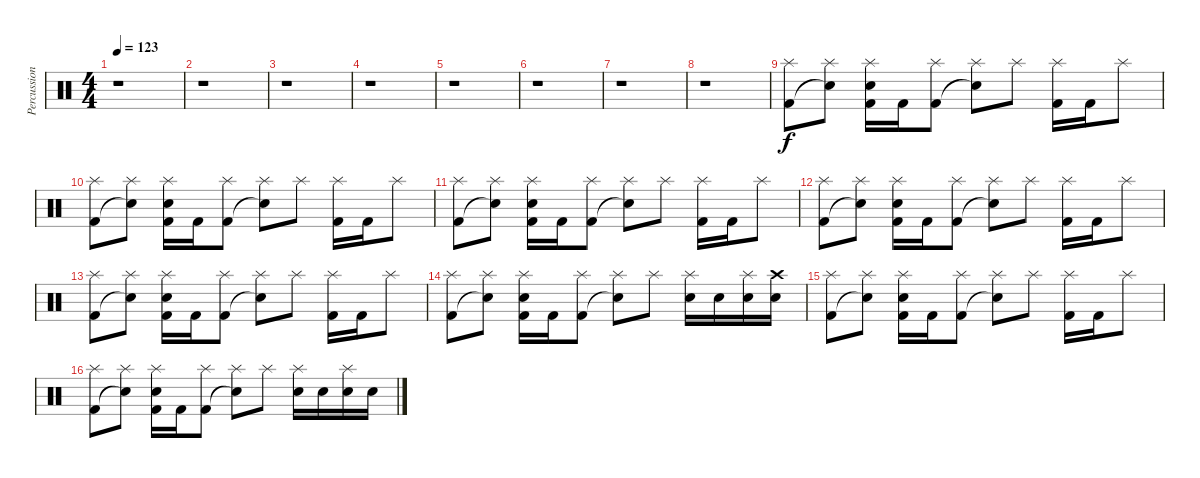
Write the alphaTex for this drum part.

\track ("Percussion" "Percussion") {instrument percussion}
\staff {score}
\articulation defaults
\ts (4 4)
\tempo 123
\clef neutral
\ks c
r.1{dy f} |
r.1 |
r.1 |
r.1 |
r.1 |
r.1 |
r.1 |
r.1 |
("Kick (hit) 2" "Splash (hit)").8 ("Snare (hit)"{t} "Splash (hit)").8 ("Electric Snare (hit)" "Kick (hit) 2" "Splash (hit)").16 "Kick (hit) 2".16 ("Kick (hit) 2" "Splash (hit)").8 ("Snare (hit)"{t} "Splash (hit)").8 "Splash (hit)".8 ("Kick (hit) 2" "Splash (hit)").16 "Kick (hit) 2".16 "Splash (hit)".8 |
("Kick (hit) 2" "Splash (hit)").8 ("Snare (hit)"{t} "Splash (hit)").8 ("Electric Snare (hit)" "Kick (hit) 2" "Splash (hit)").16 "Kick (hit) 2".16 ("Kick (hit) 2" "Splash (hit)").8 ("Snare (hit)"{t} "Splash (hit)").8 "Splash (hit)".8 ("Kick (hit) 2" "Splash (hit)").16 "Kick (hit) 2".16 "Splash (hit)".8 |
("Kick (hit) 2" "Splash (hit)").8 ("Snare (hit)"{t} "Splash (hit)").8 ("Electric Snare (hit)" "Kick (hit) 2" "Splash (hit)").16 "Kick (hit) 2".16 ("Kick (hit) 2" "Splash (hit)").8 ("Snare (hit)"{t} "Splash (hit)").8 "Splash (hit)".8 ("Kick (hit) 2" "Splash (hit)").16 "Kick (hit) 2".16 "Splash (hit)".8 |
("Kick (hit) 2" "Splash (hit)").8 ("Snare (hit)"{t} "Splash (hit)").8 ("Electric Snare (hit)" "Kick (hit) 2" "Splash (hit)").16 "Kick (hit) 2".16 ("Kick (hit) 2" "Splash (hit)").8 ("Snare (hit)"{t} "Splash (hit)").8 "Splash (hit)".8 ("Kick (hit) 2" "Splash (hit)").16 "Kick (hit) 2".16 "Splash (hit)".8 |
("Kick (hit) 2" "Splash (hit)").8 ("Snare (hit)"{t} "Splash (hit)").8 ("Electric Snare (hit)" "Kick (hit) 2" "Splash (hit)").16 "Kick (hit) 2".16 ("Kick (hit) 2" "Splash (hit)").8 ("Snare (hit)"{t} "Splash (hit)").8 "Splash (hit)".8 ("Kick (hit) 2" "Splash (hit)").16 "Kick (hit) 2".16 "Splash (hit)".8 |
("Kick (hit) 2" "Splash (hit)").8 ("Snare (hit)"{t} "Splash (hit)").8 ("Electric Snare (hit)" "Kick (hit) 2" "Splash (hit)").16 "Kick (hit) 2".16 ("Kick (hit) 2" "Splash (hit)").8 ("Snare (hit)"{t} "Splash (hit)").8 "Splash (hit)".8 ("Electric Snare (hit)" "Splash (hit)").16 "Electric Snare (hit)".16 ("Electric Snare (hit)" "Splash (hit)").16 ("Crash high (hit)" "Electric Snare (hit)").16 |
("Kick (hit) 2" "Splash (hit)").8 ("Snare (hit)"{t} "Splash (hit)").8 ("Electric Snare (hit)" "Kick (hit) 2" "Splash (hit)").16 "Kick (hit) 2".16 ("Kick (hit) 2" "Splash (hit)").8 ("Snare (hit)"{t} "Splash (hit)").8 "Splash (hit)".8 ("Kick (hit) 2" "Splash (hit)").16 "Kick (hit) 2".16 "Splash (hit)".8 |
("Kick (hit) 2" "Splash (hit)").8 ("Snare (hit)"{t} "Splash (hit)").8 ("Electric Snare (hit)" "Kick (hit) 2" "Splash (hit)").16 "Kick (hit) 2".16 ("Kick (hit) 2" "Splash (hit)").8 ("Snare (hit)"{t} "Splash (hit)").8 "Splash (hit)".8 ("Snare (hit) 2" "Splash (hit)").16 "Snare (hit) 2".16 ("Snare (hit) 2" "Splash (hit)").16 "Snare (hit) 2".16
